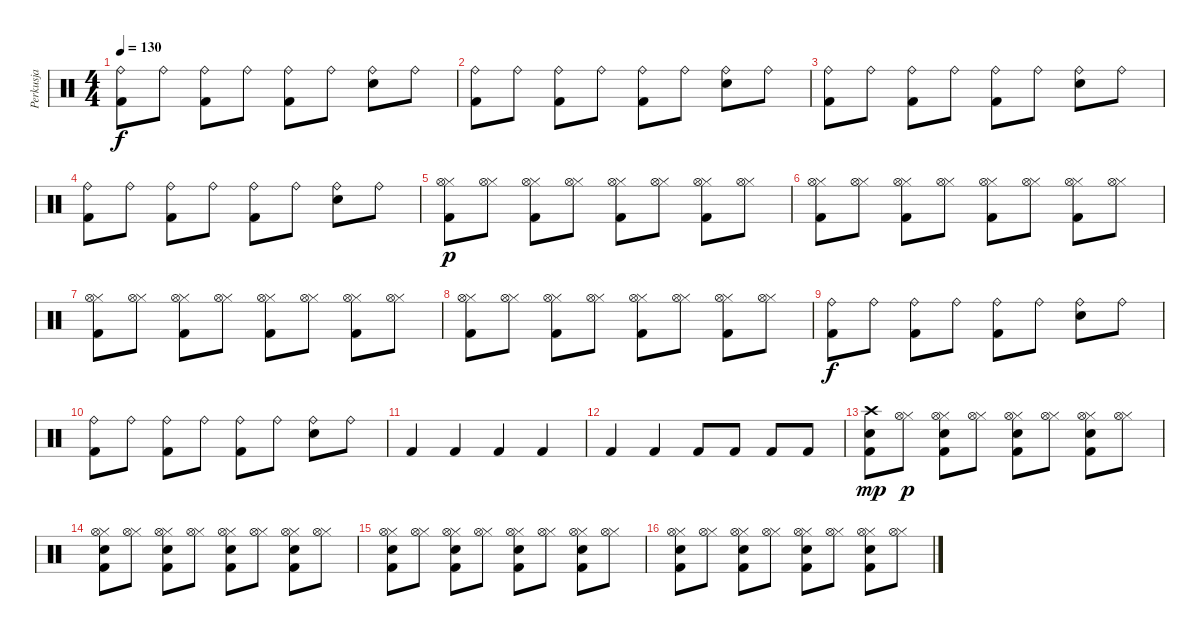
\track ("Perkusja" "Perkusja") {instrument percussion}
\staff {score}
\articulation defaults
\ts (4 4)
\tempo 130
\clef neutral
\ks c
("Kick (hit) 2" "Ride (bell)").8{dy f} "Ride (bell)".8 ("Kick (hit) 2" "Ride (bell)").8 "Ride (bell)".8 ("Kick (hit) 2" "Ride (bell)").8 "Ride (bell)".8 ("Electric Snare (hit)" "Ride (bell)").8 "Ride (bell)".8 |
("Kick (hit) 2" "Ride (bell)").8 "Ride (bell)".8 ("Kick (hit) 2" "Ride (bell)").8 "Ride (bell)".8 ("Kick (hit) 2" "Ride (bell)").8 "Ride (bell)".8 ("Electric Snare (hit)" "Ride (bell)").8 "Ride (bell)".8 |
("Kick (hit) 2" "Ride (bell)").8 "Ride (bell)".8 ("Kick (hit) 2" "Ride (bell)").8 "Ride (bell)".8 ("Kick (hit) 2" "Ride (bell)").8 "Ride (bell)".8 ("Electric Snare (hit)" "Ride (bell)").8 "Ride (bell)".8 |
("Kick (hit) 2" "Ride (bell)").8 "Ride (bell)".8 ("Kick (hit) 2" "Ride (bell)").8 "Ride (bell)".8 ("Kick (hit) 2" "Ride (bell)").8 "Ride (bell)".8 ("Electric Snare (hit)" "Ride (bell)").8 "Ride (bell)".8 |
("Kick (hit) 2" "Hi-Hat (closed)" "Hi-Hat (open)").8{dy p} ("Hi-Hat (closed)" "Hi-Hat (open)").8 ("Kick (hit) 2" "Hi-Hat (closed)" "Hi-Hat (open)").8 ("Hi-Hat (closed)" "Hi-Hat (open)").8 ("Kick (hit) 2" "Hi-Hat (closed)" "Hi-Hat (open)").8 ("Hi-Hat (closed)" "Hi-Hat (open)").8 ("Kick (hit) 2" "Hi-Hat (closed)" "Hi-Hat (open)").8 ("Hi-Hat (closed)" "Hi-Hat (open)").8 |
("Kick (hit) 2" "Hi-Hat (closed)" "Hi-Hat (open)").8 ("Hi-Hat (closed)" "Hi-Hat (open)").8 ("Kick (hit) 2" "Hi-Hat (closed)" "Hi-Hat (open)").8 ("Hi-Hat (closed)" "Hi-Hat (open)").8 ("Kick (hit) 2" "Hi-Hat (closed)" "Hi-Hat (open)").8 ("Hi-Hat (closed)" "Hi-Hat (open)").8 ("Kick (hit) 2" "Hi-Hat (closed)" "Hi-Hat (open)").8 ("Hi-Hat (closed)" "Hi-Hat (open)").8 |
("Kick (hit) 2" "Hi-Hat (closed)" "Hi-Hat (open)").8 ("Hi-Hat (closed)" "Hi-Hat (open)").8 ("Kick (hit) 2" "Hi-Hat (closed)" "Hi-Hat (open)").8 ("Hi-Hat (closed)" "Hi-Hat (open)").8 ("Kick (hit) 2" "Hi-Hat (closed)" "Hi-Hat (open)").8 ("Hi-Hat (closed)" "Hi-Hat (open)").8 ("Kick (hit) 2" "Hi-Hat (closed)" "Hi-Hat (open)").8 ("Hi-Hat (closed)" "Hi-Hat (open)").8 |
("Kick (hit) 2" "Hi-Hat (closed)" "Hi-Hat (open)").8 ("Hi-Hat (closed)" "Hi-Hat (open)").8 ("Kick (hit) 2" "Hi-Hat (closed)" "Hi-Hat (open)").8 ("Hi-Hat (closed)" "Hi-Hat (open)").8 ("Kick (hit) 2" "Hi-Hat (closed)" "Hi-Hat (open)").8 ("Hi-Hat (closed)" "Hi-Hat (open)").8 ("Kick (hit) 2" "Hi-Hat (closed)" "Hi-Hat (open)").8 ("Hi-Hat (closed)" "Hi-Hat (open)").8 |
("Kick (hit) 2" "Ride (bell)").8{dy f} "Ride (bell)".8 ("Kick (hit) 2" "Ride (bell)").8 "Ride (bell)".8 ("Kick (hit) 2" "Ride (bell)").8 "Ride (bell)".8 ("Electric Snare (hit)" "Ride (bell)").8 "Ride (bell)".8 |
("Kick (hit) 2" "Ride (bell)").8 "Ride (bell)".8 ("Kick (hit) 2" "Ride (bell)").8 "Ride (bell)".8 ("Kick (hit) 2" "Ride (bell)").8 "Ride (bell)".8 ("Electric Snare (hit)" "Ride (bell)").8 "Ride (bell)".8 |
"Kick (hit) 2".4 "Kick (hit) 2".4 "Kick (hit) 2".4 "Kick (hit) 2".4 |
"Kick (hit) 2".4 "Kick (hit) 2".4 "Kick (hit) 2".8 "Kick (hit) 2".8 "Kick (hit) 2".8 "Kick (hit) 2".8 |
("Kick (hit) 2" "Electric Snare (hit)" "Crash high (hit)").8{dy mp} ("Hi-Hat (closed)" "Hi-Hat (open)").8{dy p} ("Kick (hit) 2" "Electric Snare (hit)" "Hi-Hat (closed)" "Hi-Hat (open)").8 ("Hi-Hat (closed)" "Hi-Hat (open)").8 ("Kick (hit) 2" "Electric Snare (hit)" "Hi-Hat (closed)" "Hi-Hat (open)").8 ("Hi-Hat (closed)" "Hi-Hat (open)").8 ("Kick (hit) 2" "Electric Snare (hit)" "Hi-Hat (closed)" "Hi-Hat (open)").8 ("Hi-Hat (closed)" "Hi-Hat (open)").8 |
("Kick (hit) 2" "Electric Snare (hit)" "Hi-Hat (closed)" "Hi-Hat (open)").8 ("Hi-Hat (closed)" "Hi-Hat (open)").8 ("Kick (hit) 2" "Electric Snare (hit)" "Hi-Hat (closed)" "Hi-Hat (open)").8 ("Hi-Hat (closed)" "Hi-Hat (open)").8 ("Kick (hit) 2" "Electric Snare (hit)" "Hi-Hat (closed)" "Hi-Hat (open)").8 ("Hi-Hat (closed)" "Hi-Hat (open)").8 ("Kick (hit) 2" "Electric Snare (hit)" "Hi-Hat (closed)" "Hi-Hat (open)").8 ("Hi-Hat (closed)" "Hi-Hat (open)").8 |
("Kick (hit) 2" "Electric Snare (hit)" "Hi-Hat (closed)" "Hi-Hat (open)").8 ("Hi-Hat (closed)" "Hi-Hat (open)").8 ("Kick (hit) 2" "Electric Snare (hit)" "Hi-Hat (closed)" "Hi-Hat (open)").8 ("Hi-Hat (closed)" "Hi-Hat (open)").8 ("Kick (hit) 2" "Electric Snare (hit)" "Hi-Hat (closed)" "Hi-Hat (open)").8 ("Hi-Hat (closed)" "Hi-Hat (open)").8 ("Kick (hit) 2" "Electric Snare (hit)" "Hi-Hat (closed)" "Hi-Hat (open)").8 ("Hi-Hat (closed)" "Hi-Hat (open)").8 |
("Kick (hit) 2" "Electric Snare (hit)" "Hi-Hat (closed)" "Hi-Hat (open)").8 ("Hi-Hat (closed)" "Hi-Hat (open)").8 ("Kick (hit) 2" "Electric Snare (hit)" "Hi-Hat (closed)" "Hi-Hat (open)").8 ("Hi-Hat (closed)" "Hi-Hat (open)").8 ("Kick (hit) 2" "Electric Snare (hit)" "Hi-Hat (closed)" "Hi-Hat (open)").8 ("Hi-Hat (closed)" "Hi-Hat (open)").8 ("Kick (hit) 2" "Electric Snare (hit)" "Hi-Hat (closed)" "Hi-Hat (open)").8 ("Hi-Hat (closed)" "Hi-Hat (open)").8
